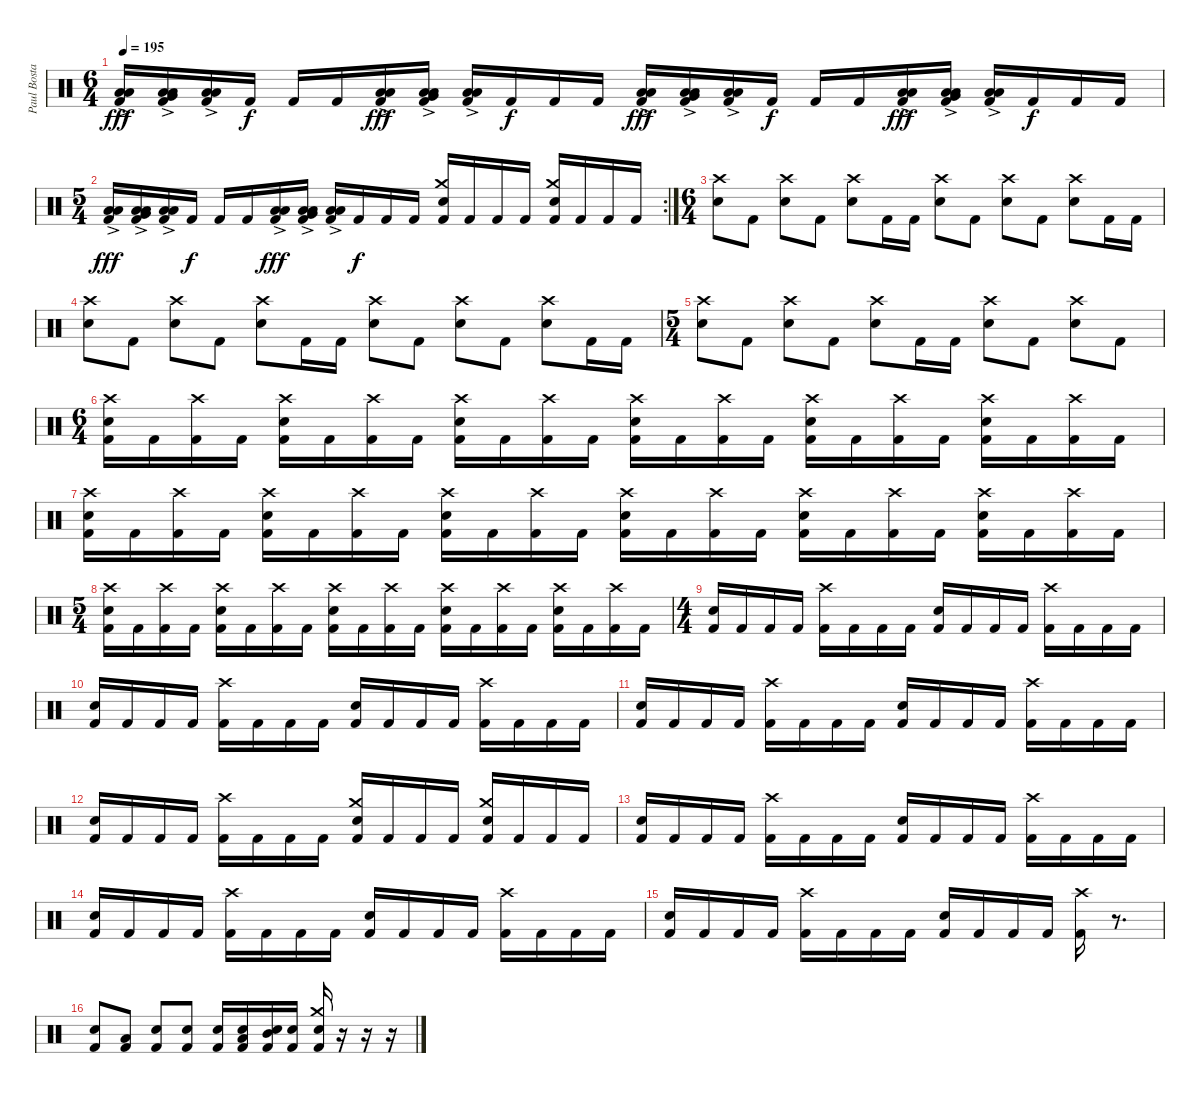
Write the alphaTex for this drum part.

\track ("Paul Bostaph" "Paul Bosta") {instrument percussion}
\staff {score}
\articulation defaults
\ts (6 4)
\tempo 195
\clef neutral
\ks c
("Kick (hit) 2" "Low Floor Tom (hit)"{ac} "Low Floor Tom (hit)"{ac}).16{dy fff} ("Kick (hit) 2" "Very Low Tom (hit)" "Low Floor Tom (hit)"{ac} "Low Floor Tom (hit)"{ac}).16 ("Kick (hit) 2" "Low Floor Tom (hit)"{ac} "Low Floor Tom (hit)"{ac}).16 "Kick (hit) 2".16{dy f} "Kick (hit) 2".16 "Kick (hit) 2".16 ("Kick (hit) 2" "Low Floor Tom (hit)"{ac} "Low Floor Tom (hit)"{ac}).16{dy fff} ("Kick (hit) 2" "Very Low Tom (hit)" "Low Floor Tom (hit)"{ac} "Low Floor Tom (hit)"{ac}).16 ("Kick (hit) 2" "Low Floor Tom (hit)"{ac} "Low Floor Tom (hit)"{ac}).16 "Kick (hit) 2".16{dy f} "Kick (hit) 2".16 "Kick (hit) 2".16 ("Kick (hit) 2" "Low Floor Tom (hit)"{ac} "Low Floor Tom (hit)"{ac}).16{dy fff} ("Kick (hit) 2" "Very Low Tom (hit)" "Low Floor Tom (hit)"{ac} "Low Floor Tom (hit)"{ac}).16 ("Kick (hit) 2" "Low Floor Tom (hit)"{ac} "Low Floor Tom (hit)"{ac}).16 "Kick (hit) 2".16{dy f} "Kick (hit) 2".16 "Kick (hit) 2".16 ("Kick (hit) 2" "Low Floor Tom (hit)"{ac} "Low Floor Tom (hit)"{ac}).16{dy fff} ("Kick (hit) 2" "Very Low Tom (hit)" "Low Floor Tom (hit)"{ac} "Low Floor Tom (hit)"{ac}).16 ("Kick (hit) 2" "Low Floor Tom (hit)"{ac} "Low Floor Tom (hit)"{ac}).16 "Kick (hit) 2".16{dy f} "Kick (hit) 2".16 "Kick (hit) 2".16 |
\rc 2
\ts (5 4)
("Kick (hit) 2" "Low Floor Tom (hit)"{ac} "Low Floor Tom (hit)"{ac}).16{dy fff} ("Kick (hit) 2" "Very Low Tom (hit)" "Low Floor Tom (hit)"{ac} "Low Floor Tom (hit)"{ac}).16 ("Kick (hit) 2" "Low Floor Tom (hit)"{ac} "Low Floor Tom (hit)"{ac}).16 "Kick (hit) 2".16{dy f} "Kick (hit) 2".16 "Kick (hit) 2".16 ("Kick (hit) 2" "Low Floor Tom (hit)"{ac} "Low Floor Tom (hit)"{ac}).16{dy fff} ("Kick (hit) 2" "Very Low Tom (hit)" "Low Floor Tom (hit)"{ac} "Low Floor Tom (hit)"{ac}).16 ("Kick (hit) 2" "Low Floor Tom (hit)"{ac} "Low Floor Tom (hit)"{ac}).16 "Kick (hit) 2".16{dy f} "Kick (hit) 2".16 "Kick (hit) 2".16 ("Kick (hit) 2" "Crash medium (hit)" "Snare (hit) 2").16 "Kick (hit) 2".16 "Kick (hit) 2".16 "Kick (hit) 2".16 ("Kick (hit) 2" "Crash medium (hit)" "Snare (hit) 2").16 "Kick (hit) 2".16 "Kick (hit) 2".16 "Kick (hit) 2".16 |
\ts (6 4)
("Crash high (hit)" "Snare (hit) 2").8 "Kick (hit) 2".8 ("Crash high (hit)" "Snare (hit) 2").8 "Kick (hit) 2".8 ("Crash high (hit)" "Snare (hit) 2").8 "Kick (hit) 2".16 "Kick (hit) 2".16 ("Crash high (hit)" "Snare (hit) 2").8 "Kick (hit) 2".8 ("Crash high (hit)" "Snare (hit) 2").8 "Kick (hit) 2".8 ("Crash high (hit)" "Snare (hit) 2").8 "Kick (hit) 2".16 "Kick (hit) 2".16 |
("Crash high (hit)" "Snare (hit) 2").8 "Kick (hit) 2".8 ("Crash high (hit)" "Snare (hit) 2").8 "Kick (hit) 2".8 ("Crash high (hit)" "Snare (hit) 2").8 "Kick (hit) 2".16 "Kick (hit) 2".16 ("Crash high (hit)" "Snare (hit) 2").8 "Kick (hit) 2".8 ("Crash high (hit)" "Snare (hit) 2").8 "Kick (hit) 2".8 ("Crash high (hit)" "Snare (hit) 2").8 "Kick (hit) 2".16 "Kick (hit) 2".16 |
\ts (5 4)
("Crash high (hit)" "Snare (hit) 2").8 "Kick (hit) 2".8 ("Crash high (hit)" "Snare (hit) 2").8 "Kick (hit) 2".8 ("Crash high (hit)" "Snare (hit) 2").8 "Kick (hit) 2".16 "Kick (hit) 2".16 ("Crash high (hit)" "Snare (hit) 2").8 "Kick (hit) 2".8 ("Crash high (hit)" "Snare (hit) 2").8 "Kick (hit) 2".8 |
\ts (6 4)
("Kick (hit) 2" "Crash high (hit)" "Snare (hit) 2").16 "Kick (hit) 2".16 ("Kick (hit) 2" "Crash high (hit)").16 "Kick (hit) 2".16 ("Kick (hit) 2" "Crash high (hit)" "Snare (hit) 2").16 "Kick (hit) 2".16 ("Kick (hit) 2" "Crash high (hit)").16 "Kick (hit) 2".16 ("Kick (hit) 2" "Crash high (hit)" "Snare (hit) 2").16 "Kick (hit) 2".16 ("Kick (hit) 2" "Crash high (hit)").16 "Kick (hit) 2".16 ("Kick (hit) 2" "Crash high (hit)" "Snare (hit) 2").16 "Kick (hit) 2".16 ("Kick (hit) 2" "Crash high (hit)").16 "Kick (hit) 2".16 ("Kick (hit) 2" "Crash high (hit)" "Snare (hit) 2").16 "Kick (hit) 2".16 ("Kick (hit) 2" "Crash high (hit)").16 "Kick (hit) 2".16 ("Kick (hit) 2" "Crash high (hit)" "Snare (hit) 2").16 "Kick (hit) 2".16 ("Kick (hit) 2" "Crash high (hit)").16 "Kick (hit) 2".16 |
("Kick (hit) 2" "Crash high (hit)" "Snare (hit) 2").16 "Kick (hit) 2".16 ("Kick (hit) 2" "Crash high (hit)").16 "Kick (hit) 2".16 ("Kick (hit) 2" "Crash high (hit)" "Snare (hit) 2").16 "Kick (hit) 2".16 ("Kick (hit) 2" "Crash high (hit)").16 "Kick (hit) 2".16 ("Kick (hit) 2" "Crash high (hit)" "Snare (hit) 2").16 "Kick (hit) 2".16 ("Kick (hit) 2" "Crash high (hit)").16 "Kick (hit) 2".16 ("Kick (hit) 2" "Crash high (hit)" "Snare (hit) 2").16 "Kick (hit) 2".16 ("Kick (hit) 2" "Crash high (hit)").16 "Kick (hit) 2".16 ("Kick (hit) 2" "Crash high (hit)" "Snare (hit) 2").16 "Kick (hit) 2".16 ("Kick (hit) 2" "Crash high (hit)").16 "Kick (hit) 2".16 ("Kick (hit) 2" "Crash high (hit)" "Snare (hit) 2").16 "Kick (hit) 2".16 ("Kick (hit) 2" "Crash high (hit)").16 "Kick (hit) 2".16 |
\ts (5 4)
("Kick (hit) 2" "Crash high (hit)" "Snare (hit) 2").16 "Kick (hit) 2".16 ("Kick (hit) 2" "Crash high (hit)").16 "Kick (hit) 2".16 ("Kick (hit) 2" "Crash high (hit)" "Snare (hit) 2").16 "Kick (hit) 2".16 ("Kick (hit) 2" "Crash high (hit)").16 "Kick (hit) 2".16 ("Kick (hit) 2" "Crash high (hit)" "Snare (hit) 2").16 "Kick (hit) 2".16 ("Kick (hit) 2" "Crash high (hit)").16 "Kick (hit) 2".16 ("Kick (hit) 2" "Crash high (hit)" "Snare (hit) 2").16 "Kick (hit) 2".16 ("Kick (hit) 2" "Crash high (hit)").16 "Kick (hit) 2".16 ("Kick (hit) 2" "Crash high (hit)" "Snare (hit) 2").16 "Kick (hit) 2".16 ("Kick (hit) 2" "Crash high (hit)").16 "Kick (hit) 2".16 |
\ts (4 4)
("Kick (hit) 2" "Snare (hit) 2").16 "Kick (hit) 2".16 "Kick (hit) 2".16 "Kick (hit) 2".16 ("Kick (hit) 2" "Crash high (hit)").16 "Kick (hit) 2".16 "Kick (hit) 2".16 "Kick (hit) 2".16 ("Kick (hit) 2" "Snare (hit) 2").16 "Kick (hit) 2".16 "Kick (hit) 2".16 "Kick (hit) 2".16 ("Kick (hit) 2" "Crash high (hit)").16 "Kick (hit) 2".16 "Kick (hit) 2".16 "Kick (hit) 2".16 |
("Kick (hit) 2" "Snare (hit) 2").16 "Kick (hit) 2".16 "Kick (hit) 2".16 "Kick (hit) 2".16 ("Kick (hit) 2" "Crash high (hit)").16 "Kick (hit) 2".16 "Kick (hit) 2".16 "Kick (hit) 2".16 ("Kick (hit) 2" "Snare (hit) 2").16 "Kick (hit) 2".16 "Kick (hit) 2".16 "Kick (hit) 2".16 ("Kick (hit) 2" "Crash high (hit)").16 "Kick (hit) 2".16 "Kick (hit) 2".16 "Kick (hit) 2".16 |
("Kick (hit) 2" "Snare (hit) 2").16 "Kick (hit) 2".16 "Kick (hit) 2".16 "Kick (hit) 2".16 ("Kick (hit) 2" "Crash high (hit)").16 "Kick (hit) 2".16 "Kick (hit) 2".16 "Kick (hit) 2".16 ("Kick (hit) 2" "Snare (hit) 2").16 "Kick (hit) 2".16 "Kick (hit) 2".16 "Kick (hit) 2".16 ("Kick (hit) 2" "Crash high (hit)").16 "Kick (hit) 2".16 "Kick (hit) 2".16 "Kick (hit) 2".16 |
("Kick (hit) 2" "Snare (hit) 2").16 "Kick (hit) 2".16 "Kick (hit) 2".16 "Kick (hit) 2".16 ("Kick (hit) 2" "Crash high (hit)").16 "Kick (hit) 2".16 "Kick (hit) 2".16 "Kick (hit) 2".16 ("Kick (hit) 2" "Crash medium (hit)" "Snare (hit) 2").16 "Kick (hit) 2".16 "Kick (hit) 2".16 "Kick (hit) 2".16 ("Kick (hit) 2" "Crash medium (hit)" "Snare (hit) 2").16 "Kick (hit) 2".16 "Kick (hit) 2".16 "Kick (hit) 2".16 |
("Kick (hit) 2" "Snare (hit) 2").16 "Kick (hit) 2".16 "Kick (hit) 2".16 "Kick (hit) 2".16 ("Kick (hit) 2" "Crash high (hit)").16 "Kick (hit) 2".16 "Kick (hit) 2".16 "Kick (hit) 2".16 ("Kick (hit) 2" "Snare (hit) 2").16 "Kick (hit) 2".16 "Kick (hit) 2".16 "Kick (hit) 2".16 ("Kick (hit) 2" "Crash high (hit)").16 "Kick (hit) 2".16 "Kick (hit) 2".16 "Kick (hit) 2".16 |
("Kick (hit) 2" "Snare (hit) 2").16 "Kick (hit) 2".16 "Kick (hit) 2".16 "Kick (hit) 2".16 ("Kick (hit) 2" "Crash high (hit)").16 "Kick (hit) 2".16 "Kick (hit) 2".16 "Kick (hit) 2".16 ("Kick (hit) 2" "Snare (hit) 2").16 "Kick (hit) 2".16 "Kick (hit) 2".16 "Kick (hit) 2".16 ("Kick (hit) 2" "Crash high (hit)").16 "Kick (hit) 2".16 "Kick (hit) 2".16 "Kick (hit) 2".16 |
("Kick (hit) 2" "Snare (hit) 2").16 "Kick (hit) 2".16 "Kick (hit) 2".16 "Kick (hit) 2".16 ("Kick (hit) 2" "Crash high (hit)").16 "Kick (hit) 2".16 "Kick (hit) 2".16 "Kick (hit) 2".16 ("Kick (hit) 2" "Snare (hit) 2").16 "Kick (hit) 2".16 "Kick (hit) 2".16 "Kick (hit) 2".16 ("Kick (hit) 2" "Crash high (hit)").16 r.8{d} |
("Kick (hit) 2" "Snare (hit) 2").8 ("Kick (hit) 2" "Low Tom (hit)").8 ("Kick (hit) 2" "Snare (hit) 2").8 ("Kick (hit) 2" "Snare (hit) 2").8 ("Kick (hit) 2" "Snare (hit) 2").16 ("Kick (hit) 2" "Low Tom (hit)" "Snare (hit) 2").16 ("Kick (hit) 2" "Mid Tom (hit)" "Snare (hit) 2").16 ("Kick (hit) 2" "Snare (hit) 2").16 ("Kick (hit) 2" "Crash medium (hit)" "Snare (hit) 2").16 r.16 r.16 r.16
